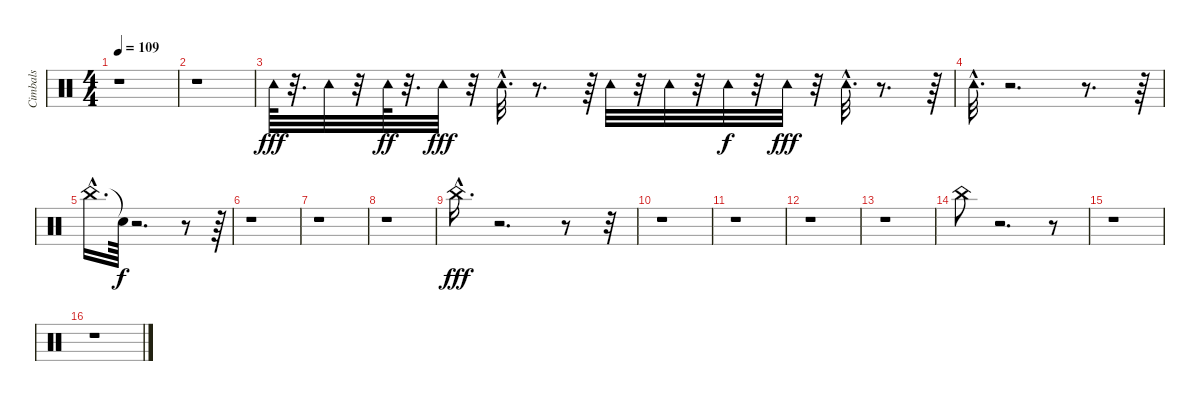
\track ("Cimbals" "Cimbals") {instrument percussion}
\staff {score}
\articulation defaults
\ts (4 4)
\tempo 109
\clef neutral
\ks c
r.1{dy fff} |
r.1 |
"Tambourine (hit)".64 r.32{d} "Tambourine (hit)".32 r.32 "Tambourine (hit)".64{dy ff} r.32{d} "Tambourine (hit)".32{dy fff} r.32 "Tambourine (hit)"{hac}.32{d} r.8{d} r.64 "Tambourine (hit)".32 r.32 "Tambourine (hit)".32 r.32 "Tambourine (hit)".32{dy f} r.32 "Tambourine (hit)".32{dy fff} r.32 "Tambourine (hit)"{hac}.32{d} r.8{d} r.64 |
"Tambourine (hit)"{hac}.32{d} r.2{d} r.8{d} r.64 |
"China (choke)"{hac}.16{d} "Snare (hit)"{t}.64{dy f} r.2{d} r.8 r.64 |
r.1 |
r.1 |
r.1 |
"China (choke)"{hac}.16{d dy fff} r.2{d} r.8 r.32 |
r.1 |
r.1 |
r.1 |
r.1 |
"China (choke)".8 r.2{d} r.8 |
r.1 |
r.1
